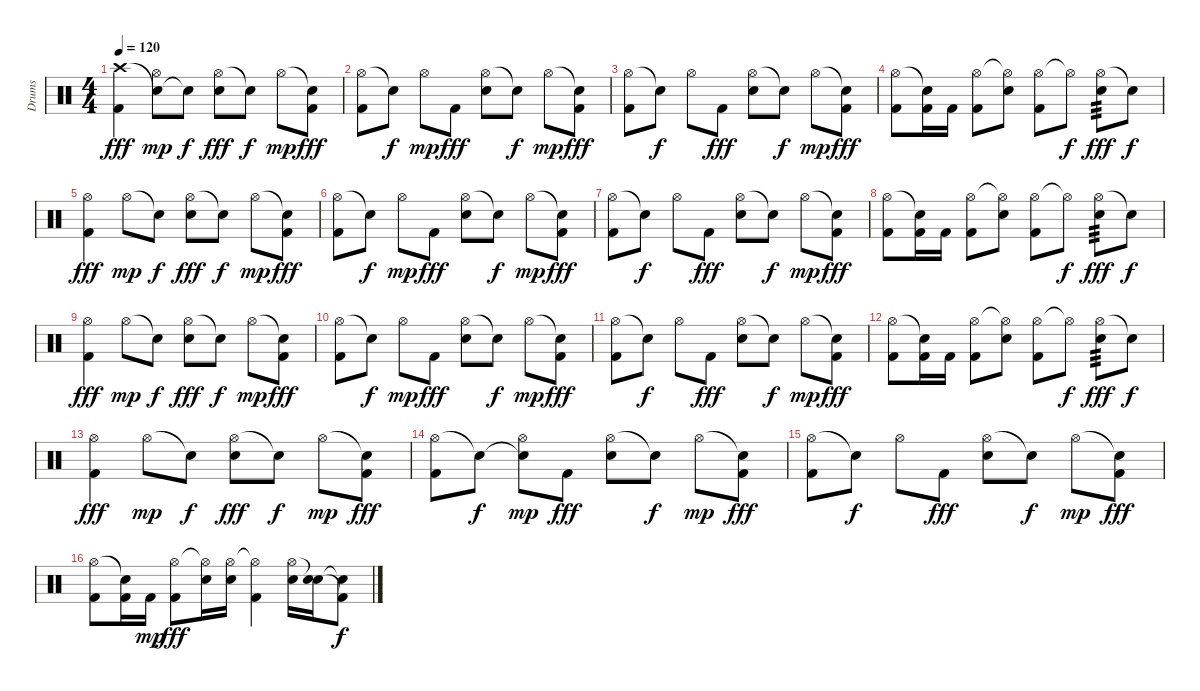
\track ("Drums" "Drums") {instrument percussion}
\staff {score}
\articulation defaults
\ts (4 4)
\tempo 120
\clef neutral
\ks c
("Crash high (hit)" "Kick (hit) 2").4{dy fff} ("Snare (hit)"{t} "Hi-Hat (open)").8{dy mp} "Snare (hit)"{t}.8{dy f} ("Hi-Hat (open)" "Electric Snare (hit)").8{dy fff} "Snare (hit)"{t}.8{dy f} "Hi-Hat (open)".8{dy mp} ("Snare (hit)"{t} "Kick (hit) 2").8{dy fff} |
("Hi-Hat (open)" "Kick (hit) 2").8 "Snare (hit)"{t}.8{dy f} "Hi-Hat (open)".8{dy mp} "Kick (hit) 2".8{dy fff} ("Hi-Hat (open)" "Electric Snare (hit)").8 "Snare (hit)"{t}.8{dy f} "Hi-Hat (open)".8{dy mp} ("Snare (hit)"{t} "Kick (hit) 2").8{dy fff} |
("Hi-Hat (open)" "Kick (hit) 2").8 "Snare (hit)"{t}.8{dy f} "Hi-Hat (open)".8 "Kick (hit) 2".8{dy fff} ("Hi-Hat (open)" "Electric Snare (hit)").8 "Snare (hit)"{t}.8{dy f} "Hi-Hat (open)".8{dy mp} ("Snare (hit)"{t} "Kick (hit) 2").8{dy fff} |
("Hi-Hat (open)" "Kick (hit) 2").8 ("Snare (hit)"{t} "Kick (hit) 2").16 "Kick (hit) 2".16 ("Hi-Hat (open)" "Kick (hit) 2").8 ("Hi-Hat (open)"{t} "Electric Snare (hit)").8 ("Hi-Hat (open)" "Kick (hit) 2").8 "Hi-Hat (open)"{t}.8{dy f} ("Hi-Hat (open)" "Electric Snare (hit)").8{tp 3 dy fff} "Snare (hit)"{t}.8{dy f} |
("Hi-Hat (open)" "Kick (hit) 2").4{dy fff} "Hi-Hat (open)".8{dy mp} "Snare (hit)"{t}.8{dy f} ("Hi-Hat (open)" "Electric Snare (hit)").8{dy fff} "Snare (hit)"{t}.8{dy f} "Hi-Hat (open)".8{dy mp} ("Snare (hit)"{t} "Kick (hit) 2").8{dy fff} |
("Hi-Hat (open)" "Kick (hit) 2").8 "Snare (hit)"{t}.8{dy f} "Hi-Hat (open)".8{dy mp} "Kick (hit) 2".8{dy fff} ("Hi-Hat (open)" "Electric Snare (hit)").8 "Snare (hit)"{t}.8{dy f} "Hi-Hat (open)".8{dy mp} ("Snare (hit)"{t} "Kick (hit) 2").8{dy fff} |
("Hi-Hat (open)" "Kick (hit) 2").8 "Snare (hit)"{t}.8{dy f} "Hi-Hat (open)".8 "Kick (hit) 2".8{dy fff} ("Hi-Hat (open)" "Electric Snare (hit)").8 "Snare (hit)"{t}.8{dy f} "Hi-Hat (open)".8{dy mp} ("Snare (hit)"{t} "Kick (hit) 2").8{dy fff} |
("Hi-Hat (open)" "Kick (hit) 2").8 ("Snare (hit)"{t} "Kick (hit) 2").16 "Kick (hit) 2".16 ("Hi-Hat (open)" "Kick (hit) 2").8 ("Hi-Hat (open)"{t} "Electric Snare (hit)").8 ("Hi-Hat (open)" "Kick (hit) 2").8 "Hi-Hat (open)"{t}.8{dy f} ("Hi-Hat (open)" "Electric Snare (hit)").8{tp 3 dy fff} "Snare (hit)"{t}.8{dy f} |
("Hi-Hat (open)" "Kick (hit) 2").4{dy fff} "Hi-Hat (open)".8{dy mp} "Snare (hit)"{t}.8{dy f} ("Hi-Hat (open)" "Electric Snare (hit)").8{dy fff} "Snare (hit)"{t}.8{dy f} "Hi-Hat (open)".8{dy mp} ("Snare (hit)"{t} "Kick (hit) 2").8{dy fff} |
("Hi-Hat (open)" "Kick (hit) 2").8 "Snare (hit)"{t}.8{dy f} "Hi-Hat (open)".8{dy mp} "Kick (hit) 2".8{dy fff} ("Hi-Hat (open)" "Electric Snare (hit)").8 "Snare (hit)"{t}.8{dy f} "Hi-Hat (open)".8{dy mp} ("Snare (hit)"{t} "Kick (hit) 2").8{dy fff} |
("Hi-Hat (open)" "Kick (hit) 2").8 "Snare (hit)"{t}.8{dy f} "Hi-Hat (open)".8 "Kick (hit) 2".8{dy fff} ("Hi-Hat (open)" "Electric Snare (hit)").8 "Snare (hit)"{t}.8{dy f} "Hi-Hat (open)".8{dy mp} ("Snare (hit)"{t} "Kick (hit) 2").8{dy fff} |
("Hi-Hat (open)" "Kick (hit) 2").8 ("Snare (hit)"{t} "Kick (hit) 2").16 "Kick (hit) 2".16 ("Hi-Hat (open)" "Kick (hit) 2").8 ("Hi-Hat (open)"{t} "Electric Snare (hit)").8 ("Hi-Hat (open)" "Kick (hit) 2").8 "Hi-Hat (open)"{t}.8{dy f} ("Hi-Hat (open)" "Electric Snare (hit)").8{tp 3 dy fff} "Snare (hit)"{t}.8{dy f} |
("Hi-Hat (open)" "Kick (hit) 2").4{dy fff} "Hi-Hat (open)".8{dy mp} "Snare (hit)"{t}.8{dy f} ("Hi-Hat (open)" "Electric Snare (hit)").8{dy fff} "Snare (hit)"{t}.8{dy f} "Hi-Hat (open)".8{dy mp} ("Snare (hit)"{t} "Kick (hit) 2").8{dy fff} |
("Hi-Hat (open)" "Kick (hit) 2").8 "Snare (hit)"{t}.8{dy f} ("Snare (hit)"{t} "Hi-Hat (open)").8{dy mp} "Kick (hit) 2".8{dy fff} ("Hi-Hat (open)" "Electric Snare (hit)").8 "Snare (hit)"{t}.8{dy f} "Hi-Hat (open)".8{dy mp} ("Snare (hit)"{t} "Kick (hit) 2").8{dy fff} |
("Hi-Hat (open)" "Kick (hit) 2").8 "Snare (hit)"{t}.8{dy f} "Hi-Hat (open)".8 "Kick (hit) 2".8{dy fff} ("Hi-Hat (open)" "Electric Snare (hit)").8 "Snare (hit)"{t}.8{dy f} "Hi-Hat (open)".8{dy mp} ("Snare (hit)"{t} "Kick (hit) 2").8{dy fff} |
("Hi-Hat (open)" "Kick (hit) 2").8 ("Snare (hit)"{t} "Kick (hit) 2").16 "Kick (hit) 2".16{dy mp} ("Hi-Hat (open)" "Kick (hit) 2").8{dy fff} ("Hi-Hat (open)"{t} "Electric Snare (hit)").16 ("Hi-Hat (open)" "Electric Snare (hit)").16 ("Hi-Hat (open)"{t} "Kick (hit) 2").4 ("Hi-Hat (open)" "Electric Snare (hit)").16 ("Snare (hit)"{t} "Electric Snare (hit)").16 ("Snare (hit)"{t} "Kick (hit) 2"{t}).8{dy f}
